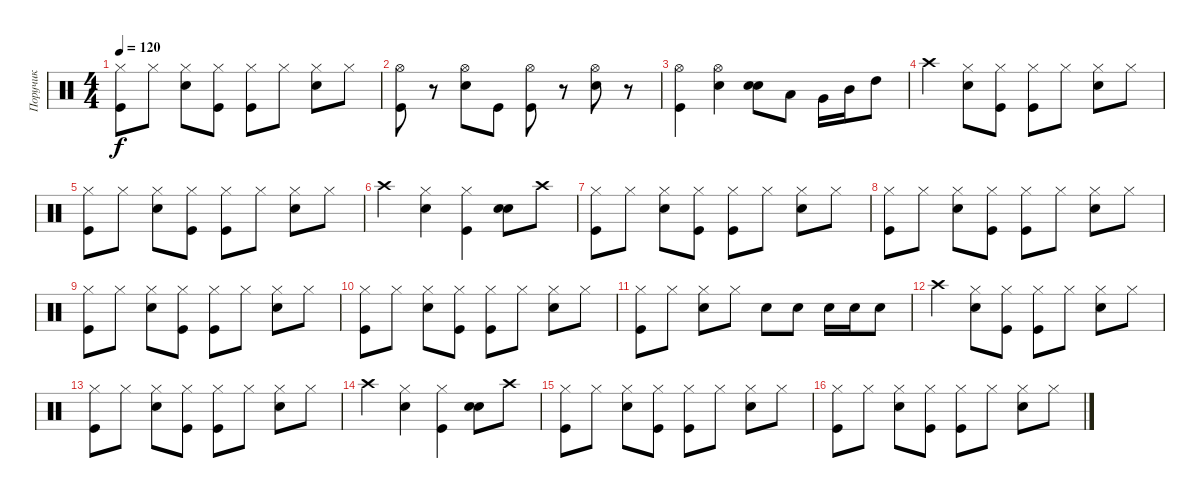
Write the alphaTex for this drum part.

\track ("Поручик" "Поручик") {instrument percussion}
\staff {score}
\articulation defaults
\ts (4 4)
\tempo 120
\clef neutral
\ks c
("Hi-Hat (closed)" "Kick (hit)").8{dy f} "Hi-Hat (closed)".8 ("Hi-Hat (closed)" "Snare (hit) 2").8 ("Hi-Hat (closed)" "Kick (hit)").8 ("Hi-Hat (closed)" "Kick (hit)").8 "Hi-Hat (closed)".8 ("Hi-Hat (closed)" "Snare (hit) 2").8 "Hi-Hat (closed)".8 |
("Hi-Hat (open)" "Kick (hit)").8 r.8 ("Hi-Hat (open)" "Snare (hit) 2").8 "Kick (hit)".8 ("Hi-Hat (open)" "Kick (hit)").8 r.8 ("Hi-Hat (open)" "Snare (hit) 2").8 r.8 |
("Hi-Hat (open)" "Kick (hit)").4 ("Hi-Hat (open)" "Snare (hit) 2").4 ("Electric Snare (hit)" "Electric Snare (hit)").8 "Low Tom (hit)".8 "Very Low Tom (hit)".16 "Mid Tom (hit)".16 "High Tom (hit)".8 |
"Crash high (hit)".4 ("Hi-Hat (closed)" "Snare (hit) 2").8 ("Hi-Hat (closed)" "Kick (hit)").8 ("Hi-Hat (closed)" "Kick (hit)").8 "Hi-Hat (closed)".8 ("Hi-Hat (closed)" "Snare (hit) 2").8 "Hi-Hat (closed)".8 |
("Hi-Hat (closed)" "Kick (hit)").8 "Hi-Hat (closed)".8 ("Hi-Hat (closed)" "Snare (hit) 2").8 ("Hi-Hat (closed)" "Kick (hit)").8 ("Hi-Hat (closed)" "Kick (hit)").8 "Hi-Hat (closed)".8 ("Hi-Hat (closed)" "Snare (hit) 2").8 "Hi-Hat (closed)".8 |
"Crash high (hit)".4 ("Hi-Hat (closed)" "Snare (hit) 2").4 ("Hi-Hat (closed)" "Kick (hit)").4 ("Electric Snare (hit)" "Electric Snare (hit)").8 "Crash high (hit)".8 |
("Hi-Hat (closed)" "Kick (hit)").8 "Hi-Hat (closed)".8 ("Hi-Hat (closed)" "Snare (hit) 2").8 ("Hi-Hat (closed)" "Kick (hit)").8 ("Hi-Hat (closed)" "Kick (hit)").8 "Hi-Hat (closed)".8 ("Hi-Hat (closed)" "Snare (hit) 2").8 "Hi-Hat (closed)".8 |
("Hi-Hat (closed)" "Kick (hit)").8 "Hi-Hat (closed)".8 ("Hi-Hat (closed)" "Snare (hit) 2").8 ("Hi-Hat (closed)" "Kick (hit)").8 ("Hi-Hat (closed)" "Kick (hit)").8 "Hi-Hat (closed)".8 ("Hi-Hat (closed)" "Snare (hit) 2").8 "Hi-Hat (closed)".8 |
("Hi-Hat (closed)" "Kick (hit)").8 "Hi-Hat (closed)".8 ("Hi-Hat (closed)" "Snare (hit) 2").8 ("Hi-Hat (closed)" "Kick (hit)").8 ("Hi-Hat (closed)" "Kick (hit)").8 "Hi-Hat (closed)".8 ("Hi-Hat (closed)" "Snare (hit) 2").8 "Hi-Hat (closed)".8 |
("Hi-Hat (closed)" "Kick (hit)").8 "Hi-Hat (closed)".8 ("Hi-Hat (closed)" "Snare (hit) 2").8 ("Hi-Hat (closed)" "Kick (hit)").8 ("Hi-Hat (closed)" "Kick (hit)").8 "Hi-Hat (closed)".8 ("Hi-Hat (closed)" "Snare (hit) 2").8 "Hi-Hat (closed)".8 |
("Hi-Hat (closed)" "Kick (hit)").8 "Hi-Hat (closed)".8 ("Hi-Hat (closed)" "Snare (hit) 2").8 "Hi-Hat (closed)".8 "Snare (hit) 2".8 "Snare (hit) 2".8 "Snare (hit) 2".16 "Snare (hit) 2".16 "Snare (hit) 2".8 |
"Crash high (hit)".4 ("Hi-Hat (closed)" "Snare (hit) 2").8 ("Hi-Hat (closed)" "Kick (hit)").8 ("Hi-Hat (closed)" "Kick (hit)").8 "Hi-Hat (closed)".8 ("Hi-Hat (closed)" "Snare (hit) 2").8 "Hi-Hat (closed)".8 |
("Hi-Hat (closed)" "Kick (hit)").8 "Hi-Hat (closed)".8 ("Hi-Hat (closed)" "Snare (hit) 2").8 ("Hi-Hat (closed)" "Kick (hit)").8 ("Hi-Hat (closed)" "Kick (hit)").8 "Hi-Hat (closed)".8 ("Hi-Hat (closed)" "Snare (hit) 2").8 "Hi-Hat (closed)".8 |
"Crash high (hit)".4 ("Hi-Hat (closed)" "Snare (hit) 2").4 ("Hi-Hat (closed)" "Kick (hit)").4 ("Electric Snare (hit)" "Electric Snare (hit)").8 "Crash high (hit)".8 |
("Hi-Hat (closed)" "Kick (hit)").8 "Hi-Hat (closed)".8 ("Hi-Hat (closed)" "Snare (hit) 2").8 ("Hi-Hat (closed)" "Kick (hit)").8 ("Hi-Hat (closed)" "Kick (hit)").8 "Hi-Hat (closed)".8 ("Hi-Hat (closed)" "Snare (hit) 2").8 "Hi-Hat (closed)".8 |
("Hi-Hat (closed)" "Kick (hit)").8 "Hi-Hat (closed)".8 ("Hi-Hat (closed)" "Snare (hit) 2").8 ("Hi-Hat (closed)" "Kick (hit)").8 ("Hi-Hat (closed)" "Kick (hit)").8 "Hi-Hat (closed)".8 ("Hi-Hat (closed)" "Snare (hit) 2").8 "Hi-Hat (closed)".8
